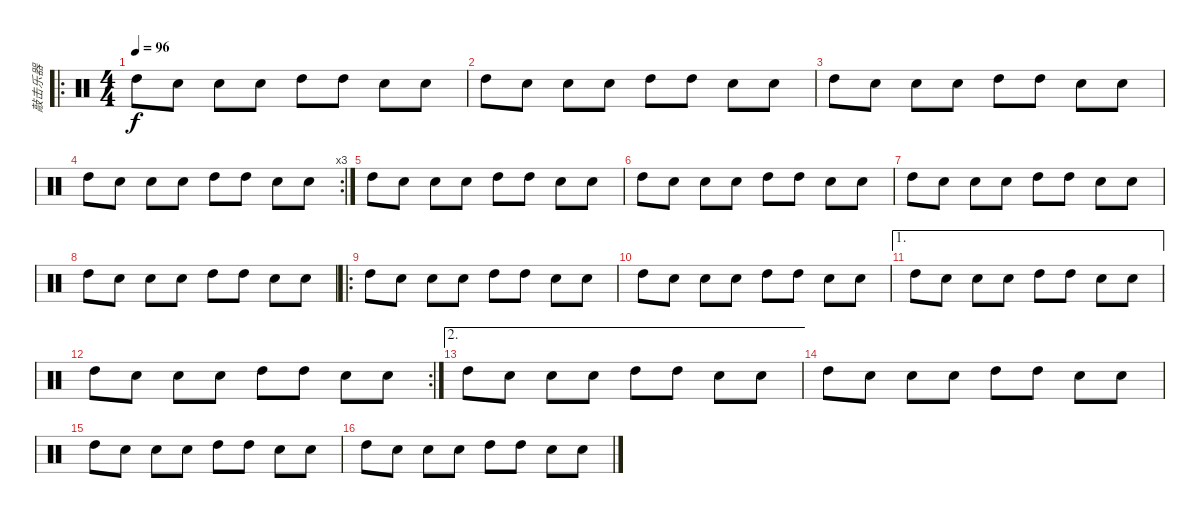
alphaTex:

\track ("敲击乐器" "敲击乐器") {instrument percussion}
\staff {score}
\articulation defaults
\ro
\ts (4 4)
\tempo 96
\clef neutral
\ks c "High Tom (hit)".8{dy f} "Snare (hit) 2".8 "Snare (hit) 2".8 "Snare (hit) 2".8 "High Tom (hit)".8 "High Tom (hit)".8 "Snare (hit) 2".8 "Snare (hit) 2".8
|
"High Tom (hit)".8 "Snare (hit) 2".8 "Snare (hit) 2".8 "Snare (hit) 2".8 "High Tom (hit)".8 "High Tom (hit)".8 "Snare (hit) 2".8 "Snare (hit) 2".8 |
"High Tom (hit)".8 "Snare (hit) 2".8 "Snare (hit) 2".8 "Snare (hit) 2".8 "High Tom (hit)".8 "High Tom (hit)".8 "Snare (hit) 2".8 "Snare (hit) 2".8 |
\rc 3 "High Tom (hit)".8 "Snare (hit) 2".8 "Snare (hit) 2".8 "Snare (hit) 2".8 "High Tom (hit)".8 "High Tom (hit)".8 "Snare (hit) 2".8 "Snare (hit) 2".8
|
"High Tom (hit)".8 "Snare (hit) 2".8 "Snare (hit) 2".8 "Snare (hit) 2".8 "High Tom (hit)".8 "High Tom (hit)".8 "Snare (hit) 2".8 "Snare (hit) 2".8 |
"High Tom (hit)".8 "Snare (hit) 2".8 "Snare (hit) 2".8 "Snare (hit) 2".8 "High Tom (hit)".8 "High Tom (hit)".8 "Snare (hit) 2".8 "Snare (hit) 2".8 |
"High Tom (hit)".8 "Snare (hit) 2".8 "Snare (hit) 2".8 "Snare (hit) 2".8 "High Tom (hit)".8 "High Tom (hit)".8 "Snare (hit) 2".8 "Snare (hit) 2".8 |
"High Tom (hit)".8 "Snare (hit) 2".8 "Snare (hit) 2".8 "Snare (hit) 2".8 "High Tom (hit)".8 "High Tom (hit)".8 "Snare (hit) 2".8 "Snare (hit) 2".8 |
\ro "High Tom (hit)".8 "Snare (hit) 2".8 "Snare (hit) 2".8 "Snare (hit) 2".8 "High Tom (hit)".8 "High Tom (hit)".8 "Snare (hit) 2".8 "Snare (hit) 2".8
|
"High Tom (hit)".8 "Snare (hit) 2".8 "Snare (hit) 2".8 "Snare (hit) 2".8 "High Tom (hit)".8 "High Tom (hit)".8 "Snare (hit) 2".8 "Snare (hit) 2".8 |
\ae 1 "High Tom (hit)".8 "Snare (hit) 2".8 "Snare (hit) 2".8 "Snare (hit) 2".8 "High Tom (hit)".8 "High Tom (hit)".8 "Snare (hit) 2".8 "Snare (hit) 2".8
|
\rc 2 "High Tom (hit)".8 "Snare (hit) 2".8 "Snare (hit) 2".8 "Snare (hit) 2".8 "High Tom (hit)".8 "High Tom (hit)".8 "Snare (hit) 2".8 "Snare (hit) 2".8
|
\ae 2 "High Tom (hit)".8 "Snare (hit) 2".8 "Snare (hit) 2".8 "Snare (hit) 2".8 "High Tom (hit)".8 "High Tom (hit)".8 "Snare (hit) 2".8 "Snare (hit) 2".8
|
"High Tom (hit)".8 "Snare (hit) 2".8 "Snare (hit) 2".8 "Snare (hit) 2".8 "High Tom (hit)".8 "High Tom (hit)".8 "Snare (hit) 2".8 "Snare (hit) 2".8 |
"High Tom (hit)".8 "Snare (hit) 2".8 "Snare (hit) 2".8 "Snare (hit) 2".8 "High Tom (hit)".8 "High Tom (hit)".8 "Snare (hit) 2".8 "Snare (hit) 2".8 |
"High Tom (hit)".8 "Snare (hit) 2".8 "Snare (hit) 2".8 "Snare (hit) 2".8 "High Tom (hit)".8 "High Tom (hit)".8 "Snare (hit) 2".8 "Snare (hit) 2".8
